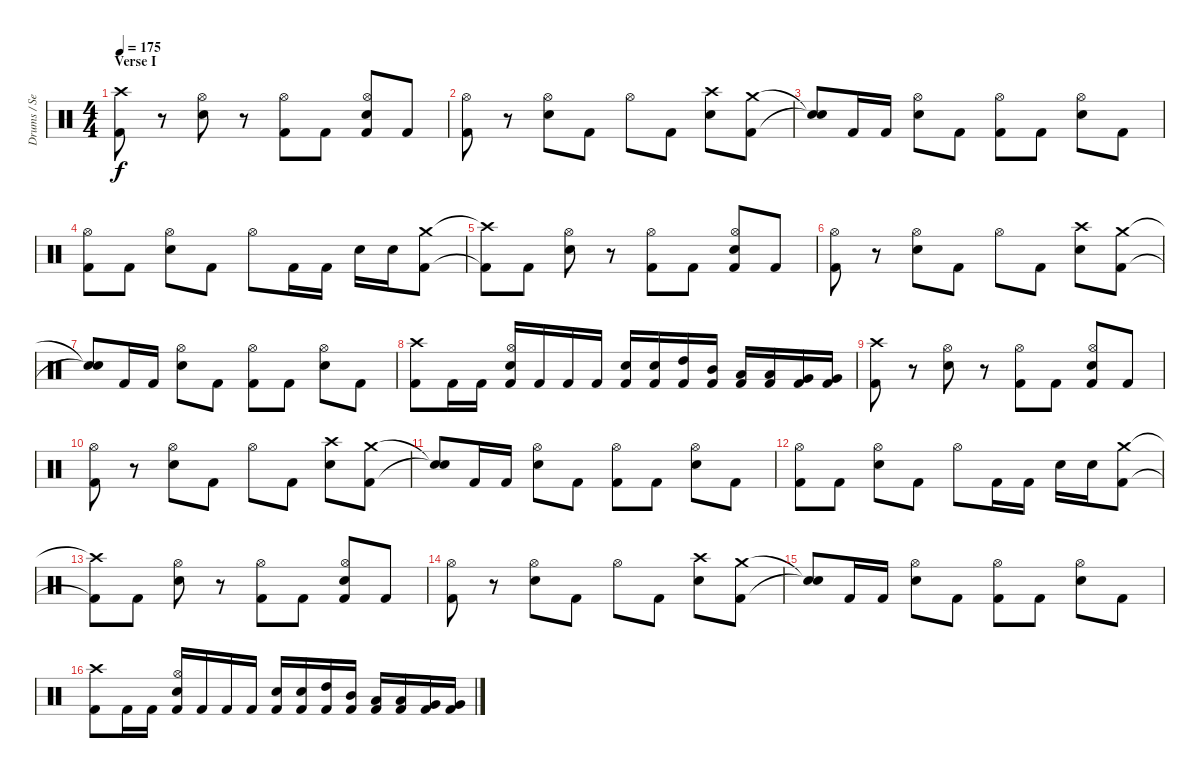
\track ("Drums / Sean" "Drums / Se") {instrument percussion}
\staff {score}
\articulation defaults
\ts (4 4)
\section ("" "Verse I")
\tempo 175
\clef neutral
\ks c
("Crash high (hit)" "Kick (hit) 2").8{dy f} r.8 ("Hi-Hat (open)" "Electric Snare (hit)").8 r.8 ("Hi-Hat (open)" "Kick (hit) 2").8 "Kick (hit) 2".8 ("Hi-Hat (open)" "Electric Snare (hit)" "Kick (hit) 2").8 "Kick (hit) 2".8 |
("Hi-Hat (open)" "Kick (hit) 2").8 r.8 ("Hi-Hat (open)" "Electric Snare (hit)").8 "Kick (hit) 2".8 "Hi-Hat (open)".8 "Kick (hit) 2".8 ("Crash high (hit)" "Electric Snare (hit)").8 ("Crash medium (hit)" "Kick (hit) 2").8 |
("Snare (hit)"{t} "Snare (hit)"{t}).8 "Kick (hit) 2".16 "Kick (hit) 2".16 ("Hi-Hat (open)" "Electric Snare (hit)").8 "Kick (hit) 2".8 ("Hi-Hat (open)" "Kick (hit) 2").8 "Kick (hit) 2".8 ("Hi-Hat (open)" "Electric Snare (hit)").8 "Kick (hit) 2".8 |
("Hi-Hat (open)" "Kick (hit) 2").8 "Kick (hit) 2".8 ("Hi-Hat (open)" "Electric Snare (hit)").8 "Kick (hit) 2".8 "Hi-Hat (open)".8 "Kick (hit) 2".16 "Kick (hit) 2".16 "Electric Snare (hit)".16 "Electric Snare (hit)".16 ("Crash medium (hit)" "Kick (hit) 2").8 |
("Crash high (hit)"{t} "Kick (hit) 2"{t}).8 "Kick (hit) 2".8 ("Hi-Hat (open)" "Electric Snare (hit)").8 r.8 ("Hi-Hat (open)" "Kick (hit) 2").8 "Kick (hit) 2".8 ("Hi-Hat (open)" "Electric Snare (hit)" "Kick (hit) 2").8 "Kick (hit) 2".8 |
("Hi-Hat (open)" "Kick (hit) 2").8 r.8 ("Hi-Hat (open)" "Electric Snare (hit)").8 "Kick (hit) 2".8 "Hi-Hat (open)".8 "Kick (hit) 2".8 ("Crash high (hit)" "Electric Snare (hit)").8 ("Crash medium (hit)" "Kick (hit) 2").8 |
("Snare (hit)"{t} "Snare (hit)"{t}).8 "Kick (hit) 2".16 "Kick (hit) 2".16 ("Hi-Hat (open)" "Electric Snare (hit)").8 "Kick (hit) 2".8 ("Hi-Hat (open)" "Kick (hit) 2").8 "Kick (hit) 2".8 ("Hi-Hat (open)" "Electric Snare (hit)").8 "Kick (hit) 2".8 |
("Crash high (hit)" "Kick (hit) 2").8 "Kick (hit) 2".16 "Kick (hit) 2".16 ("Hi-Hat (open)" "Electric Snare (hit)" "Kick (hit) 2").16 "Kick (hit) 2".16 "Kick (hit) 2".16 "Kick (hit) 2".16 ("Electric Snare (hit)" "Kick (hit) 2").16 ("Electric Snare (hit)" "Kick (hit) 2").16 ("High Tom (hit)" "Kick (hit) 2").16 ("Mid Tom (hit)" "Kick (hit) 2").16 ("Low Tom (hit)" "Kick (hit) 2").16 ("Low Tom (hit)" "Kick (hit) 2").16 ("Very Low Tom (hit)" "Kick (hit) 2").16 ("Very Low Tom (hit)" "Kick (hit) 2").16 |
("Crash high (hit)" "Kick (hit) 2").8 r.8 ("Hi-Hat (open)" "Electric Snare (hit)").8 r.8 ("Hi-Hat (open)" "Kick (hit) 2").8 "Kick (hit) 2".8 ("Hi-Hat (open)" "Electric Snare (hit)" "Kick (hit) 2").8 "Kick (hit) 2".8 |
("Hi-Hat (open)" "Kick (hit) 2").8 r.8 ("Hi-Hat (open)" "Electric Snare (hit)").8 "Kick (hit) 2".8 "Hi-Hat (open)".8 "Kick (hit) 2".8 ("Crash high (hit)" "Electric Snare (hit)").8 ("Crash medium (hit)" "Kick (hit) 2").8 |
("Snare (hit)"{t} "Snare (hit)"{t}).8 "Kick (hit) 2".16 "Kick (hit) 2".16 ("Hi-Hat (open)" "Electric Snare (hit)").8 "Kick (hit) 2".8 ("Hi-Hat (open)" "Kick (hit) 2").8 "Kick (hit) 2".8 ("Hi-Hat (open)" "Electric Snare (hit)").8 "Kick (hit) 2".8 |
("Hi-Hat (open)" "Kick (hit) 2").8 "Kick (hit) 2".8 ("Hi-Hat (open)" "Electric Snare (hit)").8 "Kick (hit) 2".8 "Hi-Hat (open)".8 "Kick (hit) 2".16 "Kick (hit) 2".16 "Electric Snare (hit)".16 "Electric Snare (hit)".16 ("Crash medium (hit)" "Kick (hit) 2").8 |
("Crash high (hit)"{t} "Kick (hit) 2"{t}).8 "Kick (hit) 2".8 ("Hi-Hat (open)" "Electric Snare (hit)").8 r.8 ("Hi-Hat (open)" "Kick (hit) 2").8 "Kick (hit) 2".8 ("Hi-Hat (open)" "Electric Snare (hit)" "Kick (hit) 2").8 "Kick (hit) 2".8 |
("Hi-Hat (open)" "Kick (hit) 2").8 r.8 ("Hi-Hat (open)" "Electric Snare (hit)").8 "Kick (hit) 2".8 "Hi-Hat (open)".8 "Kick (hit) 2".8 ("Crash high (hit)" "Electric Snare (hit)").8 ("Crash medium (hit)" "Kick (hit) 2").8 |
("Snare (hit)"{t} "Snare (hit)"{t}).8 "Kick (hit) 2".16 "Kick (hit) 2".16 ("Hi-Hat (open)" "Electric Snare (hit)").8 "Kick (hit) 2".8 ("Hi-Hat (open)" "Kick (hit) 2").8 "Kick (hit) 2".8 ("Hi-Hat (open)" "Electric Snare (hit)").8 "Kick (hit) 2".8 |
("Crash high (hit)" "Kick (hit) 2").8 "Kick (hit) 2".16 "Kick (hit) 2".16 ("Hi-Hat (open)" "Electric Snare (hit)" "Kick (hit) 2").16 "Kick (hit) 2".16 "Kick (hit) 2".16 "Kick (hit) 2".16 ("Electric Snare (hit)" "Kick (hit) 2").16 ("Electric Snare (hit)" "Kick (hit) 2").16 ("High Tom (hit)" "Kick (hit) 2").16 ("Mid Tom (hit)" "Kick (hit) 2").16 ("Low Tom (hit)" "Kick (hit) 2").16 ("Low Tom (hit)" "Kick (hit) 2").16 ("Very Low Tom (hit)" "Kick (hit) 2").16 ("Very Low Tom (hit)" "Kick (hit) 2").16
